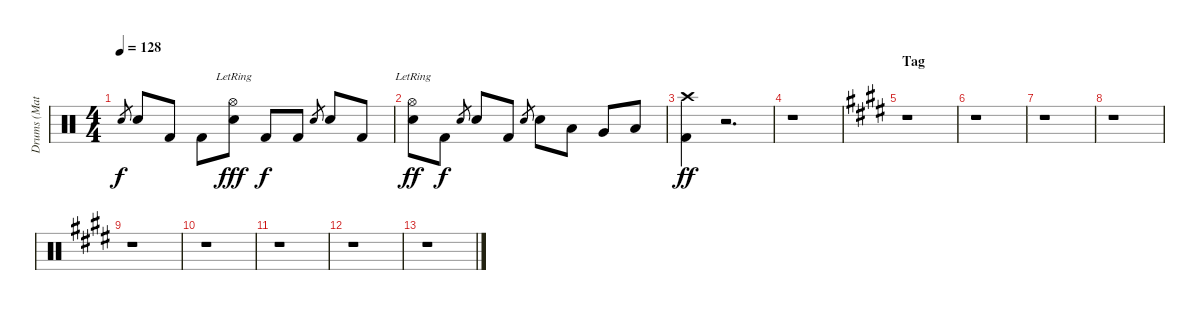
\track ("Drums (Matt Sorum)" "Drums (Mat") {instrument percussion}
\staff {score}
\articulation defaults
\ts (4 4)
\tempo 128
\clef neutral
\ks c "Snare (hit) 2".8{gr dy f} "Snare (hit) 2".8 "Kick (hit) 2".8 "Kick (hit) 2".8
("Hi-Hat (open)"{lr} "Snare (hit) 2").8{dy fff} "Kick (hit) 2".8{dy f} "Kick (hit) 2".8 "Snare (hit) 2".8{gr} "Snare (hit) 2".8 "Kick (hit) 2".8 |
("Hi-Hat (open)"{lr} "Snare (hit) 2").8{dy ff} "Kick (hit) 2".8{dy f} "Snare (hit) 2".8{gr} "Snare (hit) 2".8 "Kick (hit) 2".8 "Snare (hit) 2".8{gr} "Snare (hit) 2".8 "Low Tom (hit)".8 "Very Low Tom (hit)".8 "Low Floor Tom (hit)".8 |
("Crash high (hit)" "Kick (hit) 2").4{dy ff} r.2{d volume 0} |
r.1 |
\section ("" "Tag")
\ks e
r.1 |
r.1 |
r.1 |
r.1 |
r.1 |
r.1 |
r.1 |
r.1 |
r.1
